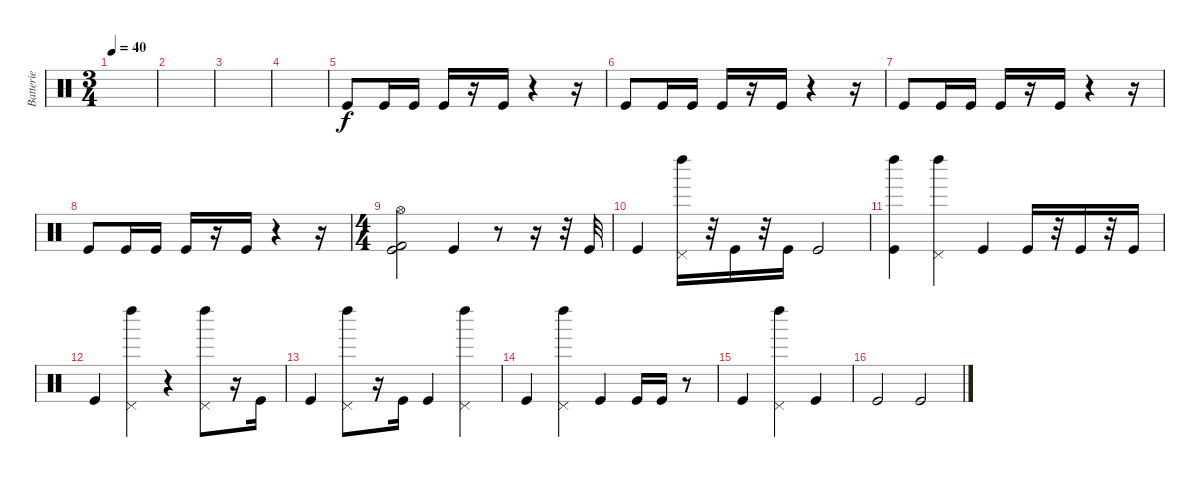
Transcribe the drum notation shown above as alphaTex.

\track ("Batterie" "Batterie") {instrument percussion}
\staff {score}
\articulation defaults
\ts (3 4)
\tempo 40
\clef neutral
\ks c
|
|
|
|
"Kick (hit)".8 "Kick (hit)".16 "Kick (hit)".16 "Kick (hit)".16 r.16 "Kick (hit)".16 r.4 r.16 |
"Kick (hit)".8 "Kick (hit)".16 "Kick (hit)".16 "Kick (hit)".16 r.16 "Kick (hit)".16 r.4 r.16 |
"Kick (hit)".8 "Kick (hit)".16 "Kick (hit)".16 "Kick (hit)".16 r.16 "Kick (hit)".16 r.4 r.16 |
"Kick (hit)".8 "Kick (hit)".16 "Kick (hit)".16 "Kick (hit)".16 r.16 "Kick (hit)".16 r.4 r.16 |
\ts (4 4)
("Kick (hit)" "Kick (hit) 2" "Hi-Hat (open)").2 "Kick (hit)".4 r.8 r.16 r.32 "Kick (hit)".32 |
"Kick (hit)".4 ("Left Maraca (hit)" "Pedal Hi-Hat (hit)").16 r.32 "Kick (hit)".16 r.32 "Kick (hit)".16 "Kick (hit)".2 |
("Kick (hit)" "Left Maraca (hit)").4 ("Left Maraca (hit)" "Pedal Hi-Hat (hit)").4 "Kick (hit)".4 "Kick (hit)".16 r.32 "Kick (hit)".16 r.32 "Kick (hit)".16 |
"Kick (hit)".4 ("Left Maraca (hit)" "Pedal Hi-Hat (hit)").4 r.4 ("Left Maraca (hit)" "Pedal Hi-Hat (hit)").8 r.16 "Kick (hit)".16 |
"Kick (hit)".4 ("Left Maraca (hit)" "Pedal Hi-Hat (hit)").8 r.16 "Kick (hit)".16 "Kick (hit)".4 ("Left Maraca (hit)" "Pedal Hi-Hat (hit)").4 |
"Kick (hit)".4 ("Left Maraca (hit)" "Pedal Hi-Hat (hit)").4 "Kick (hit)".4 "Kick (hit)".16 "Kick (hit)".16 r.8 |
"Kick (hit)".4 ("Left Maraca (hit)" "Pedal Hi-Hat (hit)").4 "Kick (hit)".4 |
"Kick (hit)".2 "Kick (hit)".2
